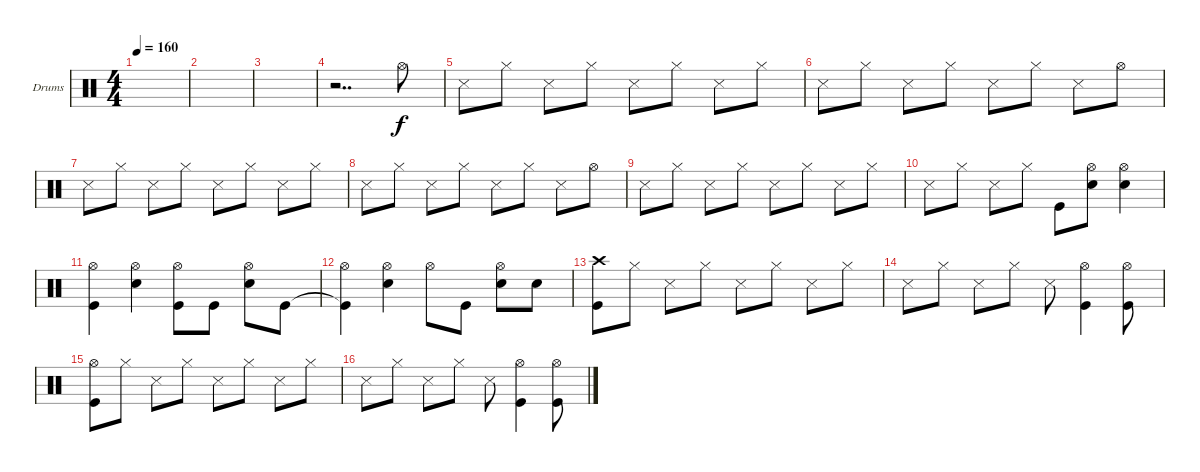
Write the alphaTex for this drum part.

\defaultSystemsLayout 4
\bracketExtendMode groupsimilarinstruments
\firstSystemTrackNameOrientation horizontal
\otherSystemsTrackNameOrientation horizontal
\track ("Drumkit" "Drums") {instrument percussion}
\staff {score}
\articulation defaults
\ts (4 4)
\tempo 160
\clef neutral
\scale
0.474178
\ks c
|
\scale
0.262911 |
\scale
0.262911 |
\scale
0.333333 r.2{dd} "Hi-Hat (open)".8 |
\scale
0.333333 "Snare (side stick) 3".8 "Hi-Hat (closed)".8 "Snare (side stick) 3".8 "Hi-Hat (closed)".8 "Snare (side stick) 3".8 "Hi-Hat (closed)".8 "Snare (side stick) 3".8 "Hi-Hat (closed)".8 |
\scale
0.333333 "Snare (side stick) 3".8 "Hi-Hat (closed)".8 "Snare (side stick) 3".8 "Hi-Hat (closed)".8 "Snare (side stick) 3".8 "Hi-Hat (closed)".8 "Snare (side stick) 3".8 "Hi-Hat (open)".8 |
\scale
0.333333 "Snare (side stick) 3".8 "Hi-Hat (closed)".8 "Snare (side stick) 3".8 "Hi-Hat (closed)".8 "Snare (side stick) 3".8 "Hi-Hat (closed)".8 "Snare (side stick) 3".8 "Hi-Hat (closed)".8 |
\scale
0.333333 "Snare (side stick) 3".8 "Hi-Hat (closed)".8 "Snare (side stick) 3".8 "Hi-Hat (closed)".8 "Snare (side stick) 3".8 "Hi-Hat (closed)".8 "Snare (side stick) 3".8 "Hi-Hat (open)".8 |
\scale
0.333333 "Snare (side stick) 3".8 "Hi-Hat (closed)".8 "Snare (side stick) 3".8 "Hi-Hat (closed)".8 "Snare (side stick) 3".8 "Hi-Hat (closed)".8 "Snare (side stick) 3".8 "Hi-Hat (closed)".8 |
\scale
0.333333 "Snare (side stick) 3".8 "Hi-Hat (closed)".8 "Snare (side stick) 3".8 "Hi-Hat (closed)".8 "Kick (hit)".8 ("Snare (hit) 2" "Hi-Hat (open)").8 ("Snare (hit) 2" "Hi-Hat (open)").4 |
\scale
0.333333 ("Hi-Hat (open)" "Kick (hit)").4 ("Snare (hit) 2" "Hi-Hat (open)").4 ("Kick (hit)" "Hi-Hat (open)").8 "Kick (hit)".8 ("Snare (hit) 2" "Hi-Hat (open)").8 "Kick (hit)".8 |
\scale
0.333333 ("Kick (hit)"{t} "Hi-Hat (open)").4 ("Hi-Hat (open)" "Snare (hit) 2").4 "Hi-Hat (open)".8 "Kick (hit)".8 ("Snare (hit) 2" "Hi-Hat (open)").8 "Snare (hit) 2".8 |
\scale
0.333333 ("Crash high (hit)" "Kick (hit)").8 "Hi-Hat (closed)".8 "Snare (side stick) 3".8 "Hi-Hat (closed)".8 "Snare (side stick) 3".8 "Hi-Hat (closed)".8 "Snare (side stick) 3".8 "Hi-Hat (closed)".8 |
\scale
0.333333 "Snare (side stick) 3".8 "Hi-Hat (closed)".8 "Snare (side stick) 3".8 "Hi-Hat (closed)".8 "Snare (side stick) 3".8 ("Kick (hit)" "Hi-Hat (open)").4 ("Kick (hit)" "Hi-Hat (open)").8 |
\scale
0.333333 ("Kick (hit)" "Hi-Hat (open)").8 "Hi-Hat (closed)".8 "Snare (side stick) 3".8 "Hi-Hat (closed)".8 "Snare (side stick) 3".8 "Hi-Hat (closed)".8 "Snare (side stick) 3".8 "Hi-Hat (closed)".8 |
\scale
0.333333 "Snare (side stick) 3".8 "Hi-Hat (closed)".8 "Snare (side stick) 3".8 "Hi-Hat (closed)".8 "Snare (side stick) 3".8 ("Kick (hit)" "Hi-Hat (open)").4 ("Kick (hit)" "Hi-Hat (open)").8
